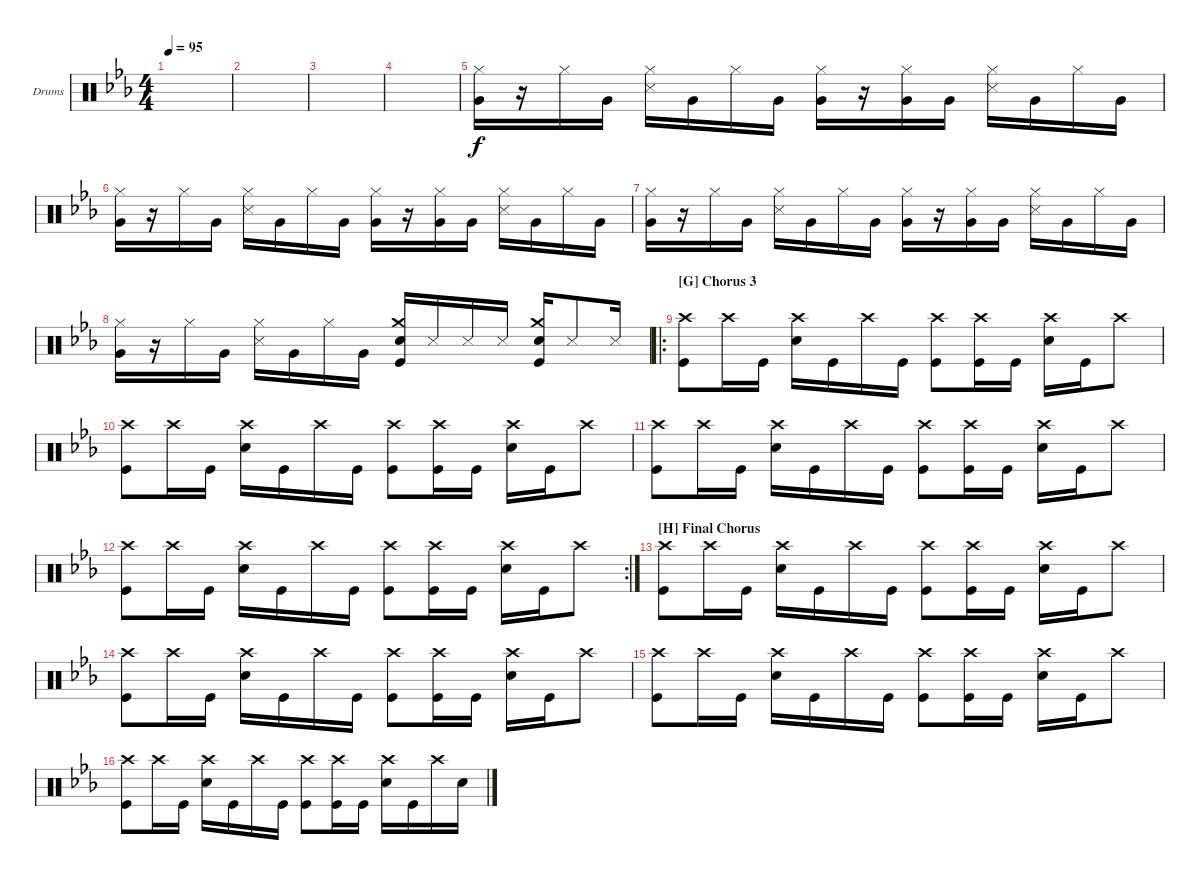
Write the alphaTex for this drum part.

\bracketExtendMode groupsimilarinstruments
\firstSystemTrackNameOrientation horizontal
\otherSystemsTrackNameOrientation horizontal
\track ("Drums" "Drums") {instrument percussion}
\staff {score}
\articulation defaults
\ts (4 4)
\tempo 95
\clef neutral
\scale
0.333333
\ks eb
|
\scale
0.333333 |
\scale
0.333333 |
\scale
0.333333 |
\scale
0.333333 ("Hi-Hat (closed)" "Very Low Tom (hit)").16 r.16 "Hi-Hat (closed)".16 "Very Low Tom (hit)".16 ("Hi-Hat (closed)" "Snare (side stick) 3").16 "Very Low Tom (hit)".16 "Hi-Hat (closed)".16 "Very Low Tom (hit)".16 ("Hi-Hat (closed)" "Very Low Tom (hit)").16 r.16 ("Hi-Hat (closed)" "Very Low Tom (hit)").16 "Very Low Tom (hit)".16 ("Hi-Hat (closed)" "Snare (side stick) 3").16 "Very Low Tom (hit)".16 "Hi-Hat (closed)".16 "Very Low Tom (hit)".16 |
\scale
0.333333 ("Hi-Hat (closed)" "Very Low Tom (hit)").16 r.16 "Hi-Hat (closed)".16 "Very Low Tom (hit)".16 ("Hi-Hat (closed)" "Snare (side stick) 3").16 "Very Low Tom (hit)".16 "Hi-Hat (closed)".16 "Very Low Tom (hit)".16 ("Hi-Hat (closed)" "Very Low Tom (hit)").16 r.16 ("Hi-Hat (closed)" "Very Low Tom (hit)").16 "Very Low Tom (hit)".16 ("Hi-Hat (closed)" "Snare (side stick) 3").16 "Very Low Tom (hit)".16 "Hi-Hat (closed)".16 "Very Low Tom (hit)".16 |
\scale
0.311475 ("Hi-Hat (closed)" "Very Low Tom (hit)").16 r.16 "Hi-Hat (closed)".16 "Very Low Tom (hit)".16 ("Hi-Hat (closed)" "Snare (side stick) 3").16 "Very Low Tom (hit)".16 "Hi-Hat (closed)".16 "Very Low Tom (hit)".16 ("Hi-Hat (closed)" "Very Low Tom (hit)").16 r.16 ("Hi-Hat (closed)" "Very Low Tom (hit)").16 "Very Low Tom (hit)".16 ("Hi-Hat (closed)" "Snare (side stick) 3").16 "Very Low Tom (hit)".16 "Hi-Hat (closed)".16 "Very Low Tom (hit)".16 |
\section ("" "")
\scale
0.377049 ("Hi-Hat (closed)" "Very Low Tom (hit)").16 r.16 "Hi-Hat (closed)".16 "Very Low Tom (hit)".16 ("Hi-Hat (closed)" "Snare (side stick) 3").16 "Very Low Tom (hit)".16 "Hi-Hat (closed)".16 "Very Low Tom (hit)".16 ("Snare (hit) 2" "Crash medium (hit)" "Kick (hit)").16 "Snare (side stick) 3".16 "Snare (side stick) 3".16 "Snare (side stick) 3".16 ("Snare (hit) 2" "Crash medium (hit)" "Kick (hit)").16 "Snare (side stick) 3".8 "Snare (side stick) 3".16 |
\ro
\section ("G" "Chorus 3")
\scale
0.311475 ("Kick (hit)" "Crash high (hit)").8 "Crash high (hit)".16 "Kick (hit)".16 ("Snare (hit) 2" "Crash high (hit)").16 "Kick (hit)".16 "Crash high (hit)".16 "Kick (hit)".16 ("Kick (hit)" "Crash high (hit)").8 ("Kick (hit)" "Crash high (hit)").16 "Kick (hit)".16 ("Snare (hit) 2" "Crash high (hit)").16 "Kick (hit)".16 "Crash high (hit)".8 |
\scale
0.322034 ("Kick (hit)" "Crash high (hit)").8 "Crash high (hit)".16 "Kick (hit)".16 ("Snare (hit) 2" "Crash high (hit)").16 "Kick (hit)".16 "Crash high (hit)".16 "Kick (hit)".16 ("Kick (hit)" "Crash high (hit)").8 ("Kick (hit)" "Crash high (hit)").16 "Kick (hit)".16 ("Snare (hit) 2" "Crash high (hit)").16 "Kick (hit)".16 "Crash high (hit)".8 |
\scale
0.355932 ("Kick (hit)" "Crash high (hit)").8 "Crash high (hit)".16 "Kick (hit)".16 ("Snare (hit) 2" "Crash high (hit)").16 "Kick (hit)".16 "Crash high (hit)".16 "Kick (hit)".16 ("Kick (hit)" "Crash high (hit)").8 ("Kick (hit)" "Crash high (hit)").16 "Kick (hit)".16 ("Snare (hit) 2" "Crash high (hit)").16 "Kick (hit)".16 "Crash high (hit)".8 |
\rc 2
\scale
0.322034 ("Kick (hit)" "Crash high (hit)").8 "Crash high (hit)".16 "Kick (hit)".16 ("Snare (hit) 2" "Crash high (hit)").16 "Kick (hit)".16 "Crash high (hit)".16 "Kick (hit)".16 ("Kick (hit)" "Crash high (hit)").8 ("Kick (hit)" "Crash high (hit)").16 "Kick (hit)".16 ("Snare (hit) 2" "Crash high (hit)").16 "Kick (hit)".16 "Crash high (hit)".8 |
\section ("H" "Final Chorus")
\scale
0.333333 ("Kick (hit)" "Crash high (hit)").8 "Crash high (hit)".16 "Kick (hit)".16 ("Snare (hit) 2" "Crash high (hit)").16 "Kick (hit)".16 "Crash high (hit)".16 "Kick (hit)".16 ("Kick (hit)" "Crash high (hit)").8 ("Kick (hit)" "Crash high (hit)").16 "Kick (hit)".16 ("Snare (hit) 2" "Crash high (hit)").16 "Kick (hit)".16 "Crash high (hit)".8 |
\scale
0.333333 ("Kick (hit)" "Crash high (hit)").8 "Crash high (hit)".16 "Kick (hit)".16 ("Snare (hit) 2" "Crash high (hit)").16 "Kick (hit)".16 "Crash high (hit)".16 "Kick (hit)".16 ("Kick (hit)" "Crash high (hit)").8 ("Kick (hit)" "Crash high (hit)").16 "Kick (hit)".16 ("Snare (hit) 2" "Crash high (hit)").16 "Kick (hit)".16 "Crash high (hit)".8 |
\scale
0.333333 ("Kick (hit)" "Crash high (hit)").8 "Crash high (hit)".16 "Kick (hit)".16 ("Snare (hit) 2" "Crash high (hit)").16 "Kick (hit)".16 "Crash high (hit)".16 "Kick (hit)".16 ("Kick (hit)" "Crash high (hit)").8 ("Kick (hit)" "Crash high (hit)").16 "Kick (hit)".16 ("Snare (hit) 2" "Crash high (hit)").16 "Kick (hit)".16 "Crash high (hit)".8 |
\scale
0.333333 ("Kick (hit)" "Crash high (hit)").8 "Crash high (hit)".16 "Kick (hit)".16 ("Snare (hit) 2" "Crash high (hit)").16 "Kick (hit)".16 "Crash high (hit)".16 "Kick (hit)".16 ("Kick (hit)" "Crash high (hit)").8 ("Kick (hit)" "Crash high (hit)").16 "Kick (hit)".16 ("Snare (hit) 2" "Crash high (hit)").16 "Kick (hit)".16 "Crash high (hit)".16 "Snare (hit) 2".16
